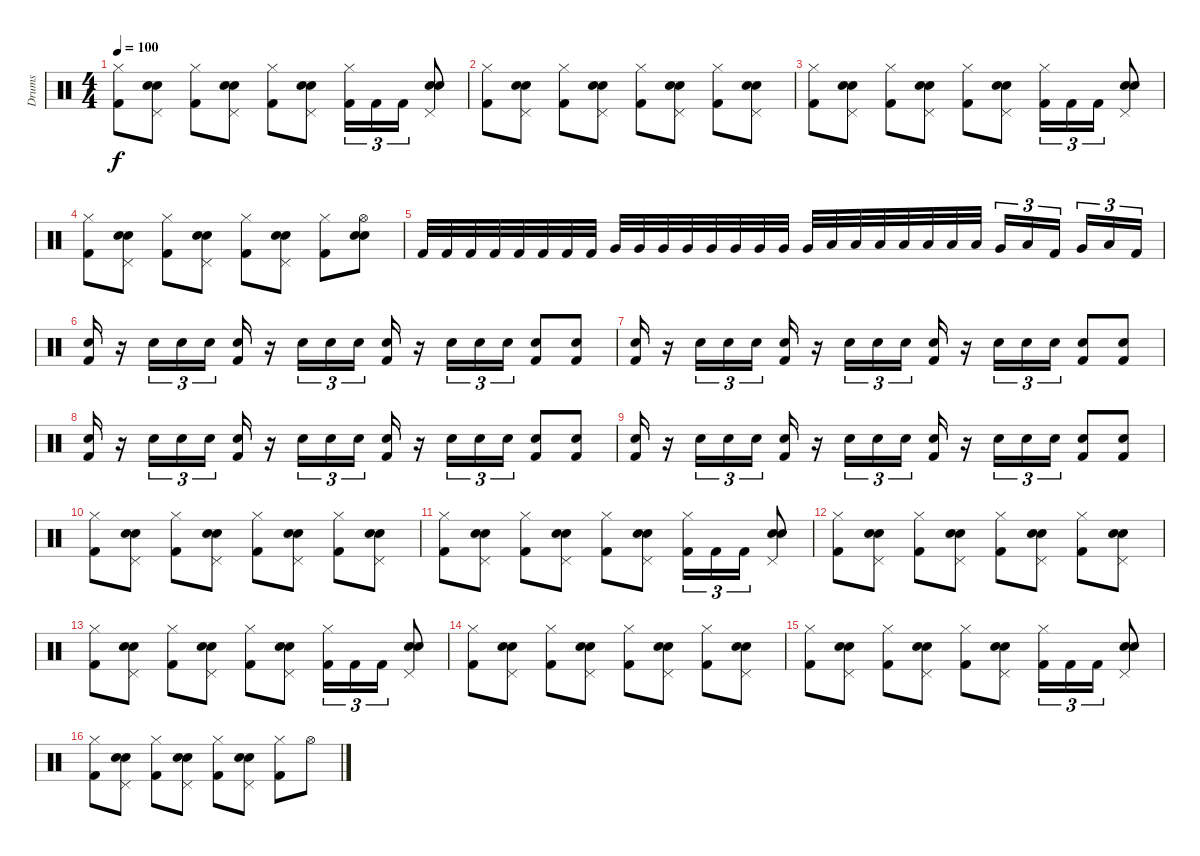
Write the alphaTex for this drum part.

\track ("Drums" "Drums") {instrument percussion}
\staff {score}
\articulation defaults
\ts (4 4)
\tempo 100
\clef neutral
\ks c
("Hi-Hat (closed)" "Kick (hit) 2").8{dy f} ("Pedal Hi-Hat (hit)" "Snare (hit) 2" "Electric Snare (hit)").8 ("Hi-Hat (closed)" "Kick (hit) 2").8 ("Pedal Hi-Hat (hit)" "Snare (hit) 2" "Electric Snare (hit)").8 ("Hi-Hat (closed)" "Kick (hit) 2").8 ("Pedal Hi-Hat (hit)" "Snare (hit) 2" "Electric Snare (hit)").8 ("Hi-Hat (closed)" "Kick (hit) 2").16{tu (3 2)} "Kick (hit) 2".16{tu (3 2)} "Kick (hit) 2".16{tu (3 2)} ("Pedal Hi-Hat (hit)" "Snare (hit) 2" "Electric Snare (hit)").8 |
("Hi-Hat (closed)" "Kick (hit) 2").8 ("Pedal Hi-Hat (hit)" "Snare (hit) 2" "Electric Snare (hit)").8 ("Hi-Hat (closed)" "Kick (hit) 2").8 ("Pedal Hi-Hat (hit)" "Snare (hit) 2" "Electric Snare (hit)").8 ("Hi-Hat (closed)" "Kick (hit) 2").8 ("Pedal Hi-Hat (hit)" "Snare (hit) 2" "Electric Snare (hit)").8 ("Hi-Hat (closed)" "Kick (hit) 2").8 ("Pedal Hi-Hat (hit)" "Snare (hit) 2" "Electric Snare (hit)").8 |
("Hi-Hat (closed)" "Kick (hit) 2").8 ("Pedal Hi-Hat (hit)" "Snare (hit) 2" "Electric Snare (hit)").8 ("Hi-Hat (closed)" "Kick (hit) 2").8 ("Pedal Hi-Hat (hit)" "Snare (hit) 2" "Electric Snare (hit)").8 ("Hi-Hat (closed)" "Kick (hit) 2").8 ("Pedal Hi-Hat (hit)" "Snare (hit) 2" "Electric Snare (hit)").8 ("Hi-Hat (closed)" "Kick (hit) 2").16{tu (3 2)} "Kick (hit) 2".16{tu (3 2)} "Kick (hit) 2".16{tu (3 2)} ("Pedal Hi-Hat (hit)" "Snare (hit) 2" "Electric Snare (hit)").8 |
("Hi-Hat (closed)" "Kick (hit) 2").8 ("Pedal Hi-Hat (hit)" "Snare (hit) 2" "Electric Snare (hit)").8 ("Hi-Hat (closed)" "Kick (hit) 2").8 ("Pedal Hi-Hat (hit)" "Snare (hit) 2" "Electric Snare (hit)").8 ("Hi-Hat (closed)" "Kick (hit) 2").8 ("Pedal Hi-Hat (hit)" "Snare (hit) 2" "Electric Snare (hit)").8 ("Hi-Hat (closed)" "Kick (hit) 2").8 ("Hi-Hat (open)" "Snare (hit) 2" "Electric Snare (hit)").8 |
"Kick (hit) 2".32 "Kick (hit) 2".32 "Kick (hit) 2".32 "Kick (hit) 2".32 "Kick (hit) 2".32 "Kick (hit) 2".32 "Kick (hit) 2".32 "Kick (hit) 2".32 "Very Low Tom (hit)".32 "Very Low Tom (hit)".32 "Very Low Tom (hit)".32 "Very Low Tom (hit)".32 "Very Low Tom (hit)".32 "Very Low Tom (hit)".32 "Very Low Tom (hit)".32 "Very Low Tom (hit)".32 "Very Low Tom (hit)".32 "Low Floor Tom (hit)".32 "Low Floor Tom (hit)".32 "Low Floor Tom (hit)".32 "Low Floor Tom (hit)".32 "Low Floor Tom (hit)".32 "Low Floor Tom (hit)".32 "Low Floor Tom (hit)".32 "Very Low Tom (hit)".16{tu (3 2)} "Low Floor Tom (hit)".16{tu (3 2)} "Kick (hit) 2".16{tu (3 2) beam splitsecondary} "Very Low Tom (hit)".16{tu (3 2)} "Low Floor Tom (hit)".16{tu (3 2)} "Kick (hit) 2".16{tu (3 2)} |
("Kick (hit) 2" "Electric Snare (hit)").16 r.16 "Electric Snare (hit)".16{tu (3 2)} "Electric Snare (hit)".16{tu (3 2)} "Electric Snare (hit)".16{tu (3 2)} ("Kick (hit) 2" "Electric Snare (hit)").16 r.16 "Electric Snare (hit)".16{tu (3 2)} "Electric Snare (hit)".16{tu (3 2)} "Electric Snare (hit)".16{tu (3 2)} ("Kick (hit) 2" "Electric Snare (hit)").16 r.16 "Electric Snare (hit)".16{tu (3 2)} "Electric Snare (hit)".16{tu (3 2)} "Electric Snare (hit)".16{tu (3 2)} ("Kick (hit) 2" "Electric Snare (hit)").8 ("Kick (hit) 2" "Electric Snare (hit)").8 |
("Kick (hit) 2" "Electric Snare (hit)").16 r.16 "Electric Snare (hit)".16{tu (3 2)} "Electric Snare (hit)".16{tu (3 2)} "Electric Snare (hit)".16{tu (3 2)} ("Kick (hit) 2" "Electric Snare (hit)").16 r.16 "Electric Snare (hit)".16{tu (3 2)} "Electric Snare (hit)".16{tu (3 2)} "Electric Snare (hit)".16{tu (3 2)} ("Kick (hit) 2" "Electric Snare (hit)").16 r.16 "Electric Snare (hit)".16{tu (3 2)} "Electric Snare (hit)".16{tu (3 2)} "Electric Snare (hit)".16{tu (3 2)} ("Kick (hit) 2" "Electric Snare (hit)").8 ("Kick (hit) 2" "Electric Snare (hit)").8 |
("Kick (hit) 2" "Electric Snare (hit)").16 r.16 "Electric Snare (hit)".16{tu (3 2)} "Electric Snare (hit)".16{tu (3 2)} "Electric Snare (hit)".16{tu (3 2)} ("Kick (hit) 2" "Electric Snare (hit)").16 r.16 "Electric Snare (hit)".16{tu (3 2)} "Electric Snare (hit)".16{tu (3 2)} "Electric Snare (hit)".16{tu (3 2)} ("Kick (hit) 2" "Electric Snare (hit)").16 r.16 "Electric Snare (hit)".16{tu (3 2)} "Electric Snare (hit)".16{tu (3 2)} "Electric Snare (hit)".16{tu (3 2)} ("Kick (hit) 2" "Electric Snare (hit)").8 ("Kick (hit) 2" "Electric Snare (hit)").8 |
("Kick (hit) 2" "Electric Snare (hit)").16 r.16 "Electric Snare (hit)".16{tu (3 2)} "Electric Snare (hit)".16{tu (3 2)} "Electric Snare (hit)".16{tu (3 2)} ("Kick (hit) 2" "Electric Snare (hit)").16 r.16 "Electric Snare (hit)".16{tu (3 2)} "Electric Snare (hit)".16{tu (3 2)} "Electric Snare (hit)".16{tu (3 2)} ("Kick (hit) 2" "Electric Snare (hit)").16 r.16 "Electric Snare (hit)".16{tu (3 2)} "Electric Snare (hit)".16{tu (3 2)} "Electric Snare (hit)".16{tu (3 2)} ("Kick (hit) 2" "Electric Snare (hit)").8 ("Kick (hit) 2" "Electric Snare (hit)").8 |
("Hi-Hat (closed)" "Kick (hit) 2").8 ("Pedal Hi-Hat (hit)" "Snare (hit) 2" "Electric Snare (hit)").8 ("Hi-Hat (closed)" "Kick (hit) 2").8 ("Pedal Hi-Hat (hit)" "Snare (hit) 2" "Electric Snare (hit)").8 ("Hi-Hat (closed)" "Kick (hit) 2").8 ("Pedal Hi-Hat (hit)" "Snare (hit) 2" "Electric Snare (hit)").8 ("Hi-Hat (closed)" "Kick (hit) 2").8 ("Pedal Hi-Hat (hit)" "Snare (hit) 2" "Electric Snare (hit)").8 |
("Hi-Hat (closed)" "Kick (hit) 2").8 ("Pedal Hi-Hat (hit)" "Snare (hit) 2" "Electric Snare (hit)").8 ("Hi-Hat (closed)" "Kick (hit) 2").8 ("Pedal Hi-Hat (hit)" "Snare (hit) 2" "Electric Snare (hit)").8 ("Hi-Hat (closed)" "Kick (hit) 2").8 ("Pedal Hi-Hat (hit)" "Snare (hit) 2" "Electric Snare (hit)").8 ("Hi-Hat (closed)" "Kick (hit) 2").16{tu (3 2)} "Kick (hit) 2".16{tu (3 2)} "Kick (hit) 2".16{tu (3 2)} ("Pedal Hi-Hat (hit)" "Snare (hit) 2" "Electric Snare (hit)").8 |
("Hi-Hat (closed)" "Kick (hit) 2").8 ("Pedal Hi-Hat (hit)" "Snare (hit) 2" "Electric Snare (hit)").8 ("Hi-Hat (closed)" "Kick (hit) 2").8 ("Pedal Hi-Hat (hit)" "Snare (hit) 2" "Electric Snare (hit)").8 ("Hi-Hat (closed)" "Kick (hit) 2").8 ("Pedal Hi-Hat (hit)" "Snare (hit) 2" "Electric Snare (hit)").8 ("Hi-Hat (closed)" "Kick (hit) 2").8 ("Pedal Hi-Hat (hit)" "Snare (hit) 2" "Electric Snare (hit)").8 |
("Hi-Hat (closed)" "Kick (hit) 2").8 ("Pedal Hi-Hat (hit)" "Snare (hit) 2" "Electric Snare (hit)").8 ("Hi-Hat (closed)" "Kick (hit) 2").8 ("Pedal Hi-Hat (hit)" "Snare (hit) 2" "Electric Snare (hit)").8 ("Hi-Hat (closed)" "Kick (hit) 2").8 ("Pedal Hi-Hat (hit)" "Snare (hit) 2" "Electric Snare (hit)").8 ("Hi-Hat (closed)" "Kick (hit) 2").16{tu (3 2)} "Kick (hit) 2".16{tu (3 2)} "Kick (hit) 2".16{tu (3 2)} ("Pedal Hi-Hat (hit)" "Snare (hit) 2" "Electric Snare (hit)").8 |
("Hi-Hat (closed)" "Kick (hit) 2").8 ("Pedal Hi-Hat (hit)" "Snare (hit) 2" "Electric Snare (hit)").8 ("Hi-Hat (closed)" "Kick (hit) 2").8 ("Pedal Hi-Hat (hit)" "Snare (hit) 2" "Electric Snare (hit)").8 ("Hi-Hat (closed)" "Kick (hit) 2").8 ("Pedal Hi-Hat (hit)" "Snare (hit) 2" "Electric Snare (hit)").8 ("Hi-Hat (closed)" "Kick (hit) 2").8 ("Pedal Hi-Hat (hit)" "Snare (hit) 2" "Electric Snare (hit)").8 |
("Hi-Hat (closed)" "Kick (hit) 2").8 ("Pedal Hi-Hat (hit)" "Snare (hit) 2" "Electric Snare (hit)").8 ("Hi-Hat (closed)" "Kick (hit) 2").8 ("Pedal Hi-Hat (hit)" "Snare (hit) 2" "Electric Snare (hit)").8 ("Hi-Hat (closed)" "Kick (hit) 2").8 ("Pedal Hi-Hat (hit)" "Snare (hit) 2" "Electric Snare (hit)").8 ("Hi-Hat (closed)" "Kick (hit) 2").16{tu (3 2)} "Kick (hit) 2".16{tu (3 2)} "Kick (hit) 2".16{tu (3 2)} ("Pedal Hi-Hat (hit)" "Snare (hit) 2" "Electric Snare (hit)").8 |
("Hi-Hat (closed)" "Kick (hit) 2").8 ("Pedal Hi-Hat (hit)" "Snare (hit) 2" "Electric Snare (hit)").8 ("Hi-Hat (closed)" "Kick (hit) 2").8 ("Pedal Hi-Hat (hit)" "Snare (hit) 2" "Electric Snare (hit)").8 ("Hi-Hat (closed)" "Kick (hit) 2").8 ("Pedal Hi-Hat (hit)" "Snare (hit) 2" "Electric Snare (hit)").8 ("Hi-Hat (closed)" "Kick (hit) 2").8 "Hi-Hat (open)".8
